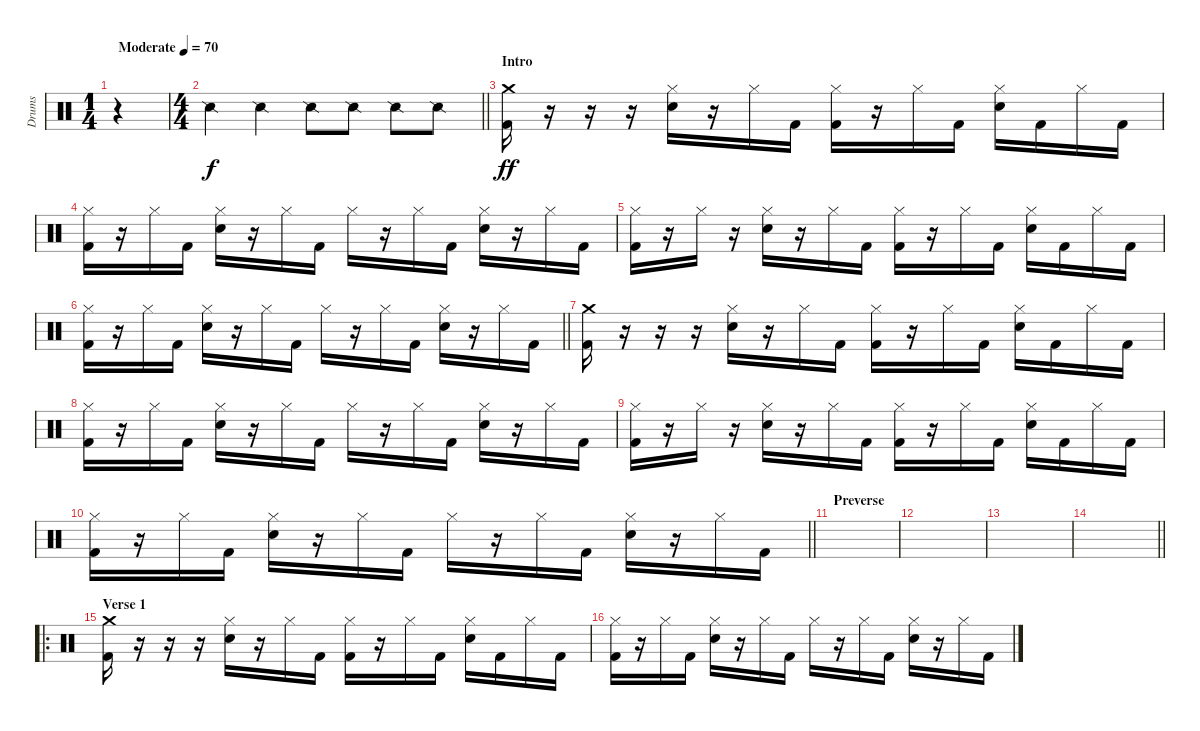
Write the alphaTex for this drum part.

\track ("Drums" "Drums") {instrument percussion}
\staff {score}
\articulation defaults
\voice
\ts (1 4)
\tempo (70 "Moderate")
\clef neutral
\ks c
r.4{dy f} |
\ts (4 4)
\barLineRight lightlight "Snare (side stick) 2".4 "Snare (side stick) 2".4 "Snare (side stick) 2".8 "Snare (side stick) 2".8 "Snare (side stick) 2".8 "Snare (side stick) 2".8
|
\section ("" "Intro")
("Crash medium (hit)" "Kick (hit) 2").16{dy ff} r.16 r.16 r.16 ("Hi-Hat (closed)" "Snare (hit) 2").16 r.16 "Hi-Hat (closed)".16 "Kick (hit) 2".16 ("Hi-Hat (closed)" "Kick (hit) 2").16 r.16 "Hi-Hat (closed)".16 "Kick (hit) 2".16 ("Hi-Hat (closed)" "Snare (hit) 2").16 "Kick (hit) 2".16 "Hi-Hat (closed)".16 "Kick (hit) 2".16 |
("Hi-Hat (closed)" "Kick (hit) 2").16 r.16 "Hi-Hat (closed)".16 "Kick (hit) 2".16 ("Hi-Hat (closed)" "Snare (hit) 2").16 r.16 "Hi-Hat (closed)".16 "Kick (hit) 2".16 "Hi-Hat (closed)".16 r.16 "Hi-Hat (closed)".16 "Kick (hit) 2".16 ("Hi-Hat (closed)" "Snare (hit) 2").16 r.16 "Hi-Hat (closed)".16 "Kick (hit) 2".16 |
("Hi-Hat (closed)" "Kick (hit) 2").16 r.16 "Hi-Hat (closed)".16 r.16 ("Hi-Hat (closed)" "Snare (hit) 2").16 r.16 "Hi-Hat (closed)".16 "Kick (hit) 2".16 ("Hi-Hat (closed)" "Kick (hit) 2").16 r.16 "Hi-Hat (closed)".16 "Kick (hit) 2".16 ("Hi-Hat (closed)" "Snare (hit) 2").16 "Kick (hit) 2".16 "Hi-Hat (closed)".16 "Kick (hit) 2".16 |
\barLineRight lightlight
("Hi-Hat (closed)" "Kick (hit) 2").16 r.16 "Hi-Hat (closed)".16 "Kick (hit) 2".16 ("Hi-Hat (closed)" "Snare (hit) 2").16 r.16 "Hi-Hat (closed)".16 "Kick (hit) 2".16 "Hi-Hat (closed)".16 r.16 "Hi-Hat (closed)".16 "Kick (hit) 2".16 ("Hi-Hat (closed)" "Snare (hit) 2").16 r.16 "Hi-Hat (closed)".16 "Kick (hit) 2".16 |
("Crash medium (hit)" "Kick (hit) 2").16 r.16 r.16 r.16 ("Hi-Hat (closed)" "Snare (hit) 2").16 r.16 "Hi-Hat (closed)".16 "Kick (hit) 2".16 ("Hi-Hat (closed)" "Kick (hit) 2").16 r.16 "Hi-Hat (closed)".16 "Kick (hit) 2".16 ("Hi-Hat (closed)" "Snare (hit) 2").16 "Kick (hit) 2".16 "Hi-Hat (closed)".16 "Kick (hit) 2".16 |
("Hi-Hat (closed)" "Kick (hit) 2").16 r.16 "Hi-Hat (closed)".16 "Kick (hit) 2".16 ("Hi-Hat (closed)" "Snare (hit) 2").16 r.16 "Hi-Hat (closed)".16 "Kick (hit) 2".16 "Hi-Hat (closed)".16 r.16 "Hi-Hat (closed)".16 "Kick (hit) 2".16 ("Hi-Hat (closed)" "Snare (hit) 2").16 r.16 "Hi-Hat (closed)".16 "Kick (hit) 2".16 |
("Hi-Hat (closed)" "Kick (hit) 2").16 r.16 "Hi-Hat (closed)".16 r.16 ("Hi-Hat (closed)" "Snare (hit) 2").16 r.16 "Hi-Hat (closed)".16 "Kick (hit) 2".16 ("Hi-Hat (closed)" "Kick (hit) 2").16 r.16 "Hi-Hat (closed)".16 "Kick (hit) 2".16 ("Hi-Hat (closed)" "Snare (hit) 2").16 "Kick (hit) 2".16 "Hi-Hat (closed)".16 "Kick (hit) 2".16 |
\barLineRight lightlight
("Hi-Hat (closed)" "Kick (hit) 2").16 r.16 "Hi-Hat (closed)".16 "Kick (hit) 2".16 ("Hi-Hat (closed)" "Snare (hit) 2").16 r.16 "Hi-Hat (closed)".16 "Kick (hit) 2".16 "Hi-Hat (closed)".16 r.16 "Hi-Hat (closed)".16 "Kick (hit) 2".16 ("Hi-Hat (closed)" "Snare (hit) 2").16 r.16 "Hi-Hat (closed)".16 "Kick (hit) 2".16 |
\section ("" "Preverse")
|
|
|
\barLineRight lightlight
|
\ro
\section ("" "Verse 1")
("Crash medium (hit)" "Kick (hit) 2").16 r.16 r.16 r.16 ("Hi-Hat (closed)" "Snare (hit) 2").16 r.16 "Hi-Hat (closed)".16 "Kick (hit) 2".16 ("Hi-Hat (closed)" "Kick (hit) 2").16 r.16 "Hi-Hat (closed)".16 "Kick (hit) 2".16 ("Hi-Hat (closed)" "Snare (hit) 2").16 "Kick (hit) 2".16 "Hi-Hat (closed)".16 "Kick (hit) 2".16 |
("Hi-Hat (closed)" "Kick (hit) 2").16 r.16 "Hi-Hat (closed)".16 "Kick (hit) 2".16 ("Hi-Hat (closed)" "Snare (hit) 2").16 r.16 "Hi-Hat (closed)".16 "Kick (hit) 2".16 "Hi-Hat (closed)".16 r.16 "Hi-Hat (closed)".16 "Kick (hit) 2".16 ("Hi-Hat (closed)" "Snare (hit) 2").16 r.16 "Hi-Hat (closed)".16 "Kick (hit) 2".16
\voice
\clef neutral
\ottava regular
\simile none
\ks c
r.4{dy f} |
\barLineRight lightlight
|
|
|
|
\barLineRight lightlight
|
|
|
|
\barLineRight lightlight
|
|
|
|
\barLineRight lightlight
|
|
